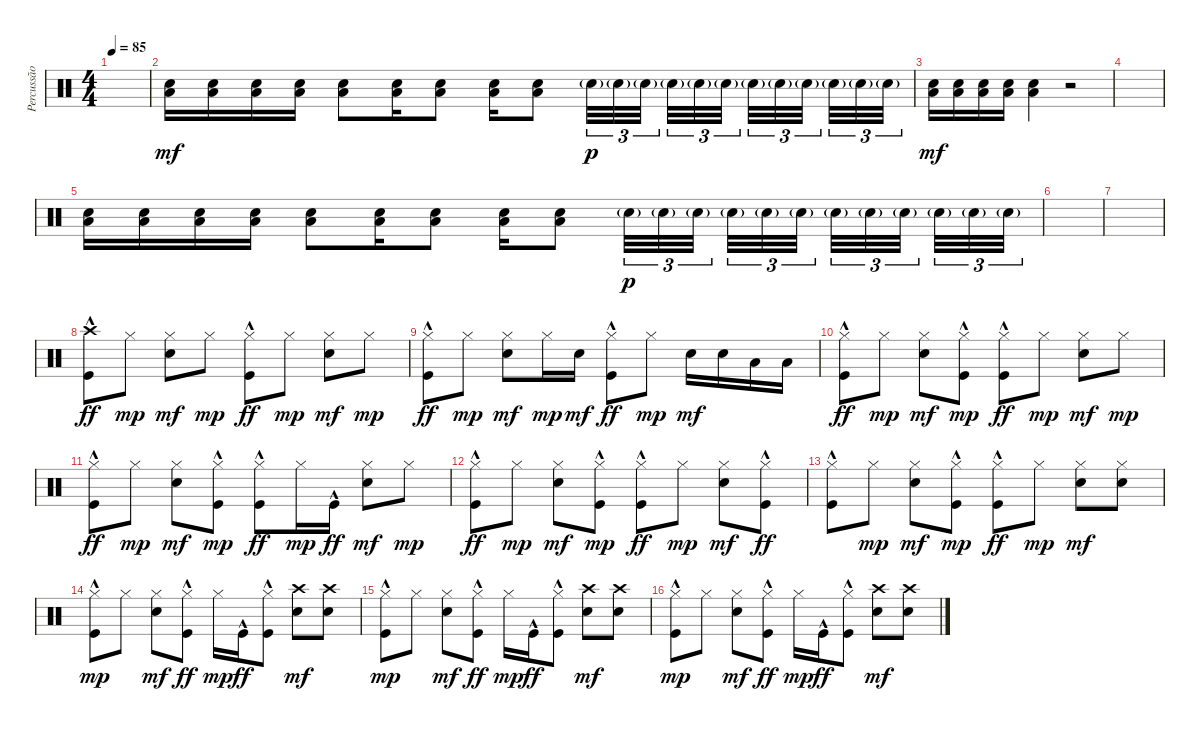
\track ("Percussão" "Percussão") {instrument percussion}
\staff {score}
\articulation defaults
\ts (4 4)
\tempo 85
\clef neutral
\ks c
|
("Snare (hit) 2" "Low Floor Tom (hit)").16{dy mf} ("Snare (hit) 2" "Low Floor Tom (hit)").16 ("Snare (hit) 2" "Low Floor Tom (hit)").16 ("Snare (hit) 2" "Low Floor Tom (hit)").16 ("Snare (hit) 2" "Low Floor Tom (hit)").8 ("Snare (hit) 2" "Low Floor Tom (hit)").16 ("Snare (hit) 2" "Low Floor Tom (hit)").8 ("Snare (hit) 2" "Low Floor Tom (hit)").16 ("Snare (hit) 2" "Low Floor Tom (hit)").8 "Snare (hit) 2"{g}.32{tu (3 2) dy p} "Snare (hit) 2"{g}.32{tu (3 2)} "Snare (hit) 2"{g}.32{tu (3 2) beam splitsecondary} "Snare (hit) 2"{g}.32{tu (3 2)} "Snare (hit) 2"{g}.32{tu (3 2)} "Snare (hit) 2"{g}.32{tu (3 2) beam splitsecondary} "Snare (hit) 2"{g}.32{tu (3 2)} "Snare (hit) 2"{g}.32{tu (3 2)} "Snare (hit) 2"{g}.32{tu (3 2) beam splitsecondary} "Snare (hit) 2"{g}.32{tu (3 2)} "Snare (hit) 2"{g}.32{tu (3 2)} "Snare (hit) 2"{g}.32{tu (3 2)} |
("Snare (hit) 2" "Low Floor Tom (hit)").16{dy mf} ("Snare (hit) 2" "Low Floor Tom (hit)").16 ("Snare (hit) 2" "Low Floor Tom (hit)").16 ("Snare (hit) 2" "Low Floor Tom (hit)").16 ("Snare (hit) 2" "Low Floor Tom (hit)").4 r.2 |
|
("Snare (hit) 2" "Low Floor Tom (hit)").16 ("Snare (hit) 2" "Low Floor Tom (hit)").16 ("Snare (hit) 2" "Low Floor Tom (hit)").16 ("Snare (hit) 2" "Low Floor Tom (hit)").16 ("Snare (hit) 2" "Low Floor Tom (hit)").8 ("Snare (hit) 2" "Low Floor Tom (hit)").16 ("Snare (hit) 2" "Low Floor Tom (hit)").8 ("Snare (hit) 2" "Low Floor Tom (hit)").16 ("Snare (hit) 2" "Low Floor Tom (hit)").8 "Snare (hit) 2"{g}.32{tu (3 2) dy p} "Snare (hit) 2"{g}.32{tu (3 2)} "Snare (hit) 2"{g}.32{tu (3 2) beam splitsecondary} "Snare (hit) 2"{g}.32{tu (3 2)} "Snare (hit) 2"{g}.32{tu (3 2)} "Snare (hit) 2"{g}.32{tu (3 2) beam splitsecondary} "Snare (hit) 2"{g}.32{tu (3 2)} "Snare (hit) 2"{g}.32{tu (3 2)} "Snare (hit) 2"{g}.32{tu (3 2) beam splitsecondary} "Snare (hit) 2"{g}.32{tu (3 2)} "Snare (hit) 2"{g}.32{tu (3 2)} "Snare (hit) 2"{g}.32{tu (3 2)} |
|
|
("Crash high (hit)" "Kick (hit)"{hac}).8{dy ff} "Hi-Hat (closed)".8{dy mp} ("Hi-Hat (closed)" "Snare (hit) 2").8{dy mf} "Hi-Hat (closed)".8{dy mp} ("Hi-Hat (closed)" "Kick (hit)"{hac}).8{dy ff} "Hi-Hat (closed)".8{dy mp} ("Hi-Hat (closed)" "Snare (hit) 2").8{dy mf} "Hi-Hat (closed)".8{dy mp} |
("Hi-Hat (closed)" "Kick (hit)"{hac}).8{dy ff} "Hi-Hat (closed)".8{dy mp} ("Hi-Hat (closed)" "Snare (hit) 2").8{dy mf} "Hi-Hat (closed)".16{dy mp} "Snare (hit) 2".16{dy mf} ("Hi-Hat (closed)" "Kick (hit)"{hac}).8{dy ff} "Hi-Hat (closed)".8{dy mp} "Snare (hit) 2".16{dy mf} "Snare (hit) 2".16 "Low Tom (hit)".16 "Low Tom (hit)".16 |
("Hi-Hat (closed)" "Kick (hit)"{hac}).8{dy ff} "Hi-Hat (closed)".8{dy mp} ("Hi-Hat (closed)" "Snare (hit) 2").8{dy mf} ("Hi-Hat (closed)" "Kick (hit)"{hac}).8{dy mp} ("Hi-Hat (closed)" "Kick (hit)"{hac}).8{dy ff} "Hi-Hat (closed)".8{dy mp} ("Hi-Hat (closed)" "Snare (hit) 2").8{dy mf} "Hi-Hat (closed)".8{dy mp} |
("Hi-Hat (closed)" "Kick (hit)"{hac}).8{dy ff} "Hi-Hat (closed)".8{dy mp} ("Hi-Hat (closed)" "Snare (hit) 2").8{dy mf} ("Hi-Hat (closed)" "Kick (hit)"{hac}).8{dy mp} ("Hi-Hat (closed)" "Kick (hit)"{hac}).8{dy ff} "Hi-Hat (closed)".16{dy mp} "Kick (hit)"{hac}.16{dy ff} ("Hi-Hat (closed)" "Snare (hit) 2").8{dy mf} "Hi-Hat (closed)".8{dy mp} |
("Hi-Hat (closed)" "Kick (hit)"{hac}).8{dy ff} "Hi-Hat (closed)".8{dy mp} ("Hi-Hat (closed)" "Snare (hit) 2").8{dy mf} ("Hi-Hat (closed)" "Kick (hit)"{hac}).8{dy mp} ("Hi-Hat (closed)" "Kick (hit)"{hac}).8{dy ff} "Hi-Hat (closed)".8{dy mp} ("Hi-Hat (closed)" "Snare (hit) 2").8{dy mf} ("Hi-Hat (closed)" "Kick (hit)"{hac}).8{dy ff} |
("Hi-Hat (closed)" "Kick (hit)"{hac}).8 "Hi-Hat (closed)".8{dy mp} ("Hi-Hat (closed)" "Snare (hit) 2").8{dy mf} ("Hi-Hat (closed)" "Kick (hit)"{hac}).8{dy mp} ("Hi-Hat (closed)" "Kick (hit)"{hac}).8{dy ff} "Hi-Hat (closed)".8{dy mp} ("Hi-Hat (closed)" "Snare (hit) 2").8{dy mf} ("Hi-Hat (closed)" "Snare (hit) 2").8 |
("Hi-Hat (closed)" "Kick (hit)"{hac}).8{dy mp} "Hi-Hat (closed)".8 ("Hi-Hat (closed)" "Snare (hit) 2").8{dy mf} ("Hi-Hat (closed)" "Kick (hit)"{hac}).8{dy ff} "Hi-Hat (closed)".16{dy mp} "Kick (hit)"{hac}.16{dy ff} ("Hi-Hat (closed)" "Kick (hit)"{hac}).8 ("Crash high (hit)" "Snare (hit) 2").8{dy mf} ("Crash high (hit)" "Snare (hit) 2").8 |
("Hi-Hat (closed)" "Kick (hit)"{hac}).8{dy mp} "Hi-Hat (closed)".8 ("Hi-Hat (closed)" "Snare (hit) 2").8{dy mf} ("Hi-Hat (closed)" "Kick (hit)"{hac}).8{dy ff} "Hi-Hat (closed)".16{dy mp} "Kick (hit)"{hac}.16{dy ff} ("Hi-Hat (closed)" "Kick (hit)"{hac}).8 ("Crash high (hit)" "Snare (hit) 2").8{dy mf} ("Crash high (hit)" "Snare (hit) 2").8 |
("Hi-Hat (closed)" "Kick (hit)"{hac}).8{dy mp} "Hi-Hat (closed)".8 ("Hi-Hat (closed)" "Snare (hit) 2").8{dy mf} ("Hi-Hat (closed)" "Kick (hit)"{hac}).8{dy ff} "Hi-Hat (closed)".16{dy mp} "Kick (hit)"{hac}.16{dy ff} ("Hi-Hat (closed)" "Kick (hit)"{hac}).8 ("Crash high (hit)" "Snare (hit) 2").8{dy mf} ("Crash high (hit)" "Snare (hit) 2").8
